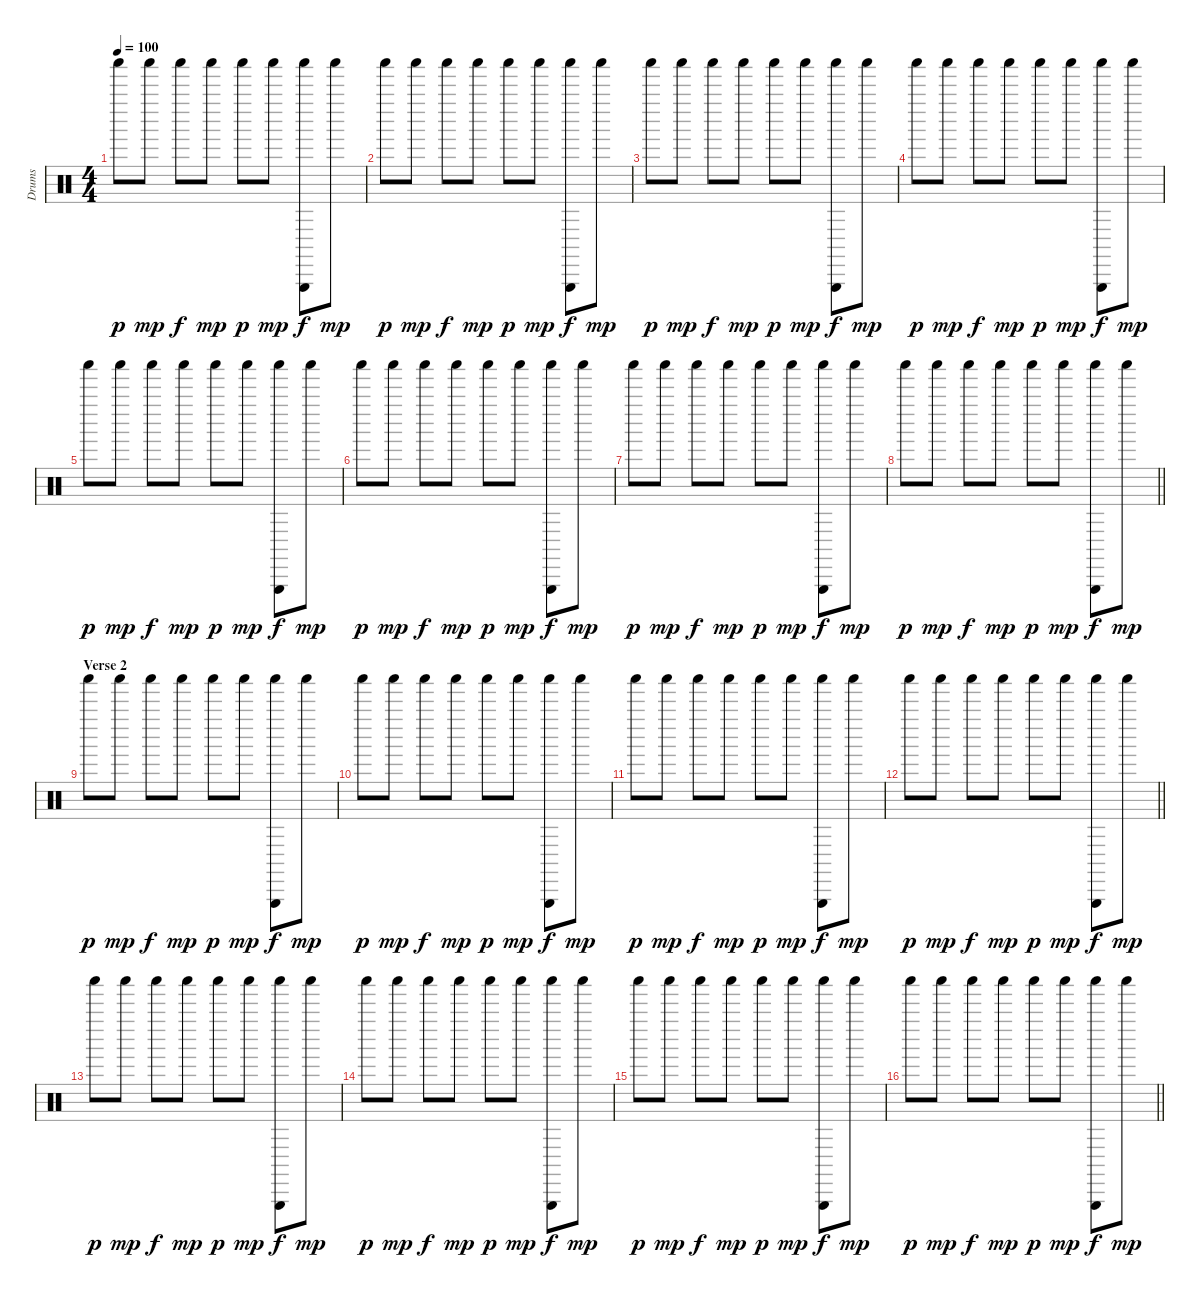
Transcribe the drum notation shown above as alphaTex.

\track ("Drums" "Drums") {instrument percussion}
\staff {score}
\articulation defaults
\ts (4 4)
\tempo 100
\clef neutral
\ks c "Shaker (hit)".8{dy p} "Shaker (hit)".8{dy mp} "Shaker (hit)".8{dy f} "Shaker (hit)".8{dy mp} "Shaker (hit)".8{dy p} "Shaker (hit)".8{dy mp}
("Triangle (hit)" "Shaker (hit)").8{dy f} "Shaker (hit)".8{dy mp} |
"Shaker (hit)".8{dy p} "Shaker (hit)".8{dy mp} "Shaker (hit)".8{dy f} "Shaker (hit)".8{dy mp} "Shaker (hit)".8{dy p} "Shaker (hit)".8{dy mp} ("Triangle (hit)" "Shaker (hit)").8{dy f} "Shaker (hit)".8{dy mp} |
"Shaker (hit)".8{dy p} "Shaker (hit)".8{dy mp} "Shaker (hit)".8{dy f} "Shaker (hit)".8{dy mp} "Shaker (hit)".8{dy p} "Shaker (hit)".8{dy mp} ("Triangle (hit)" "Shaker (hit)").8{dy f} "Shaker (hit)".8{dy mp} |
"Shaker (hit)".8{dy p} "Shaker (hit)".8{dy mp} "Shaker (hit)".8{dy f} "Shaker (hit)".8{dy mp} "Shaker (hit)".8{dy p} "Shaker (hit)".8{dy mp} ("Triangle (hit)" "Shaker (hit)").8{dy f} "Shaker (hit)".8{dy mp} |
"Shaker (hit)".8{dy p} "Shaker (hit)".8{dy mp} "Shaker (hit)".8{dy f} "Shaker (hit)".8{dy mp} "Shaker (hit)".8{dy p} "Shaker (hit)".8{dy mp} ("Triangle (hit)" "Shaker (hit)").8{dy f} "Shaker (hit)".8{dy mp} |
"Shaker (hit)".8{dy p} "Shaker (hit)".8{dy mp} "Shaker (hit)".8{dy f} "Shaker (hit)".8{dy mp} "Shaker (hit)".8{dy p} "Shaker (hit)".8{dy mp} ("Triangle (hit)" "Shaker (hit)").8{dy f} "Shaker (hit)".8{dy mp} |
"Shaker (hit)".8{dy p} "Shaker (hit)".8{dy mp} "Shaker (hit)".8{dy f} "Shaker (hit)".8{dy mp} "Shaker (hit)".8{dy p} "Shaker (hit)".8{dy mp} ("Triangle (hit)" "Shaker (hit)").8{dy f} "Shaker (hit)".8{dy mp} |
\barLineRight lightlight "Shaker (hit)".8{dy p} "Shaker (hit)".8{dy mp} "Shaker (hit)".8{dy f} "Shaker (hit)".8{dy mp} "Shaker (hit)".8{dy p} "Shaker (hit)".8{dy mp}
("Triangle (hit)" "Shaker (hit)").8{dy f} "Shaker (hit)".8{dy mp} |
\section ("" "Verse 2")
"Shaker (hit)".8{dy p} "Shaker (hit)".8{dy mp} "Shaker (hit)".8{dy f} "Shaker (hit)".8{dy mp} "Shaker (hit)".8{dy p} "Shaker (hit)".8{dy mp} ("Triangle (hit)" "Shaker (hit)").8{dy f} "Shaker (hit)".8{dy mp} |
"Shaker (hit)".8{dy p} "Shaker (hit)".8{dy mp} "Shaker (hit)".8{dy f} "Shaker (hit)".8{dy mp} "Shaker (hit)".8{dy p} "Shaker (hit)".8{dy mp} ("Triangle (hit)" "Shaker (hit)").8{dy f} "Shaker (hit)".8{dy mp} |
"Shaker (hit)".8{dy p} "Shaker (hit)".8{dy mp} "Shaker (hit)".8{dy f} "Shaker (hit)".8{dy mp} "Shaker (hit)".8{dy p} "Shaker (hit)".8{dy mp} ("Triangle (hit)" "Shaker (hit)").8{dy f} "Shaker (hit)".8{dy mp} |
\barLineRight lightlight "Shaker (hit)".8{dy p} "Shaker (hit)".8{dy mp} "Shaker (hit)".8{dy f} "Shaker (hit)".8{dy mp} "Shaker (hit)".8{dy p} "Shaker (hit)".8{dy mp}
("Triangle (hit)" "Shaker (hit)").8{dy f} "Shaker (hit)".8{dy mp} |
"Shaker (hit)".8{dy p} "Shaker (hit)".8{dy mp} "Shaker (hit)".8{dy f} "Shaker (hit)".8{dy mp} "Shaker (hit)".8{dy p} "Shaker (hit)".8{dy mp} ("Triangle (hit)" "Shaker (hit)").8{dy f} "Shaker (hit)".8{dy mp} |
"Shaker (hit)".8{dy p} "Shaker (hit)".8{dy mp} "Shaker (hit)".8{dy f} "Shaker (hit)".8{dy mp} "Shaker (hit)".8{dy p} "Shaker (hit)".8{dy mp} ("Triangle (hit)" "Shaker (hit)").8{dy f} "Shaker (hit)".8{dy mp} |
"Shaker (hit)".8{dy p} "Shaker (hit)".8{dy mp} "Shaker (hit)".8{dy f} "Shaker (hit)".8{dy mp} "Shaker (hit)".8{dy p} "Shaker (hit)".8{dy mp} ("Triangle (hit)" "Shaker (hit)").8{dy f} "Shaker (hit)".8{dy mp} |
\barLineRight lightlight "Shaker (hit)".8{dy p} "Shaker (hit)".8{dy mp} "Shaker (hit)".8{dy f} "Shaker (hit)".8{dy mp} "Shaker (hit)".8{dy p} "Shaker (hit)".8{dy mp}
("Triangle (hit)" "Shaker (hit)").8{dy f} "Shaker (hit)".8{dy mp}
